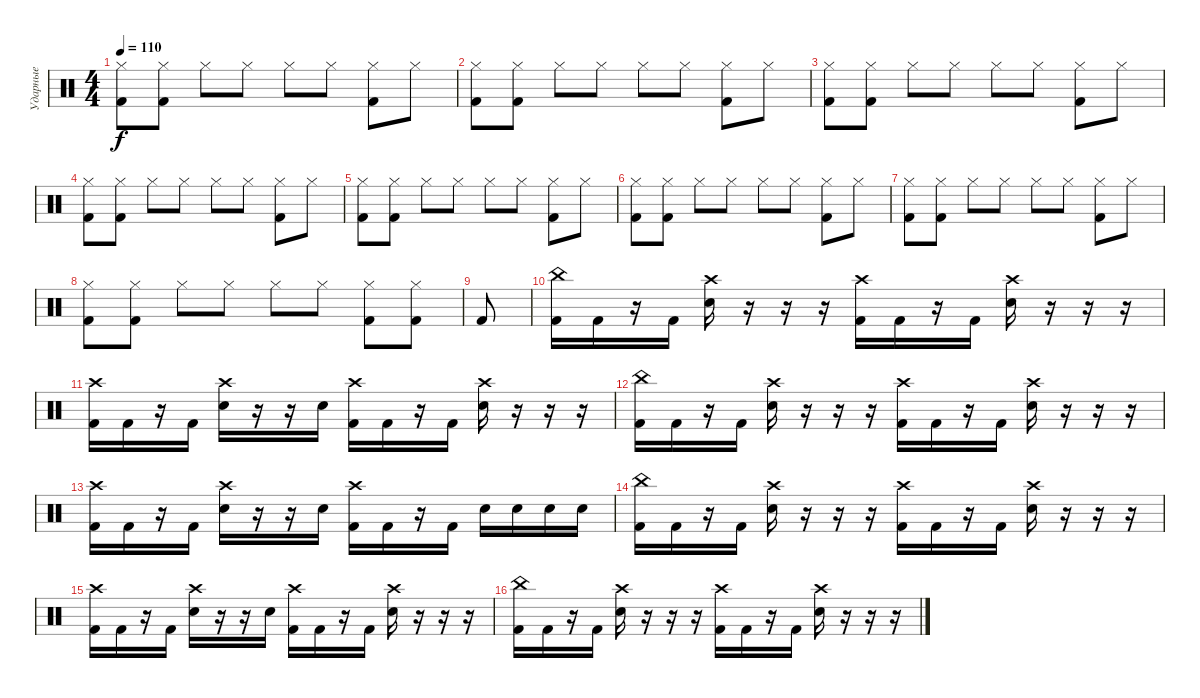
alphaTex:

\track ("Ударные" "Ударные") {instrument percussion}
\staff {score}
\articulation defaults
\ts (4 4)
\tempo 110
\clef neutral
\ks c
("Hi-Hat (closed)" "Kick (hit) 2").8{dy f} ("Hi-Hat (closed)" "Kick (hit) 2").8 "Hi-Hat (closed)".8 "Hi-Hat (closed)".8 "Hi-Hat (closed)".8 "Hi-Hat (closed)".8 ("Hi-Hat (closed)" "Kick (hit) 2").8 "Hi-Hat (closed)".8 |
("Hi-Hat (closed)" "Kick (hit) 2").8 ("Hi-Hat (closed)" "Kick (hit) 2").8 "Hi-Hat (closed)".8 "Hi-Hat (closed)".8 "Hi-Hat (closed)".8 "Hi-Hat (closed)".8 ("Hi-Hat (closed)" "Kick (hit) 2").8 "Hi-Hat (closed)".8 |
("Hi-Hat (closed)" "Kick (hit) 2").8 ("Hi-Hat (closed)" "Kick (hit) 2").8 "Hi-Hat (closed)".8 "Hi-Hat (closed)".8 "Hi-Hat (closed)".8 "Hi-Hat (closed)".8 ("Hi-Hat (closed)" "Kick (hit) 2").8 "Hi-Hat (closed)".8 |
("Hi-Hat (closed)" "Kick (hit) 2").8 ("Hi-Hat (closed)" "Kick (hit) 2").8 "Hi-Hat (closed)".8 "Hi-Hat (closed)".8 "Hi-Hat (closed)".8 "Hi-Hat (closed)".8 ("Hi-Hat (closed)" "Kick (hit) 2").8 "Hi-Hat (closed)".8 |
("Hi-Hat (closed)" "Kick (hit) 2").8 ("Hi-Hat (closed)" "Kick (hit) 2").8 "Hi-Hat (closed)".8 "Hi-Hat (closed)".8 "Hi-Hat (closed)".8 "Hi-Hat (closed)".8 ("Hi-Hat (closed)" "Kick (hit) 2").8 "Hi-Hat (closed)".8 |
("Hi-Hat (closed)" "Kick (hit) 2").8 ("Hi-Hat (closed)" "Kick (hit) 2").8 "Hi-Hat (closed)".8 "Hi-Hat (closed)".8 "Hi-Hat (closed)".8 "Hi-Hat (closed)".8 ("Hi-Hat (closed)" "Kick (hit) 2").8 "Hi-Hat (closed)".8 |
("Hi-Hat (closed)" "Kick (hit) 2").8 ("Hi-Hat (closed)" "Kick (hit) 2").8 "Hi-Hat (closed)".8 "Hi-Hat (closed)".8 "Hi-Hat (closed)".8 "Hi-Hat (closed)".8 ("Hi-Hat (closed)" "Kick (hit) 2").8 "Hi-Hat (closed)".8 |
("Hi-Hat (closed)" "Kick (hit) 2").8 ("Hi-Hat (closed)" "Kick (hit) 2").8 "Hi-Hat (closed)".8 "Hi-Hat (closed)".8 "Hi-Hat (closed)".8 "Hi-Hat (closed)".8 ("Hi-Hat (closed)" "Kick (hit) 2").8 ("Hi-Hat (closed)" "Kick (hit) 2").8 |
"Kick (hit) 2".8 |
("China (hit)" "Kick (hit) 2").16 "Kick (hit) 2".16 r.16 "Kick (hit) 2".16 ("Crash high (hit)" "Snare (hit) 2").16 r.16 r.16 r.16 ("Crash high (hit)" "Kick (hit) 2").16 "Kick (hit) 2".16 r.16 "Kick (hit) 2".16 ("Crash high (hit)" "Snare (hit) 2").16 r.16 r.16 r.16 |
("Crash high (hit)" "Kick (hit) 2").16 "Kick (hit) 2".16 r.16 "Kick (hit) 2".16 ("Crash high (hit)" "Snare (hit) 2").16 r.16 r.16 "Snare (hit) 2".16 ("Crash high (hit)" "Kick (hit) 2").16 "Kick (hit) 2".16 r.16 "Kick (hit) 2".16 ("Crash high (hit)" "Snare (hit) 2").16 r.16 r.16 r.16 |
("China (hit)" "Kick (hit) 2").16 "Kick (hit) 2".16 r.16 "Kick (hit) 2".16 ("Crash high (hit)" "Snare (hit) 2").16 r.16 r.16 r.16 ("Crash high (hit)" "Kick (hit) 2").16 "Kick (hit) 2".16 r.16 "Kick (hit) 2".16 ("Crash high (hit)" "Snare (hit) 2").16 r.16 r.16 r.16 |
("Crash high (hit)" "Kick (hit) 2").16 "Kick (hit) 2".16 r.16 "Kick (hit) 2".16 ("Crash high (hit)" "Snare (hit) 2").16 r.16 r.16 "Snare (hit) 2".16 ("Crash high (hit)" "Kick (hit) 2").16 "Kick (hit) 2".16 r.16 "Kick (hit) 2".16 "Snare (hit) 2".16 "Snare (hit) 2".16 "Snare (hit) 2".16 "Snare (hit) 2".16 |
("China (hit)" "Kick (hit) 2").16 "Kick (hit) 2".16 r.16 "Kick (hit) 2".16 ("Crash high (hit)" "Snare (hit) 2").16 r.16 r.16 r.16 ("Crash high (hit)" "Kick (hit) 2").16 "Kick (hit) 2".16 r.16 "Kick (hit) 2".16 ("Crash high (hit)" "Snare (hit) 2").16 r.16 r.16 r.16 |
("Crash high (hit)" "Kick (hit) 2").16 "Kick (hit) 2".16 r.16 "Kick (hit) 2".16 ("Crash high (hit)" "Snare (hit) 2").16 r.16 r.16 "Snare (hit) 2".16 ("Crash high (hit)" "Kick (hit) 2").16 "Kick (hit) 2".16 r.16 "Kick (hit) 2".16 ("Crash high (hit)" "Snare (hit) 2").16 r.16 r.16 r.16 |
("China (hit)" "Kick (hit) 2").16 "Kick (hit) 2".16 r.16 "Kick (hit) 2".16 ("Crash high (hit)" "Snare (hit) 2").16 r.16 r.16 r.16 ("Crash high (hit)" "Kick (hit) 2").16 "Kick (hit) 2".16 r.16 "Kick (hit) 2".16 ("Crash high (hit)" "Snare (hit) 2").16 r.16 r.16 r.16
